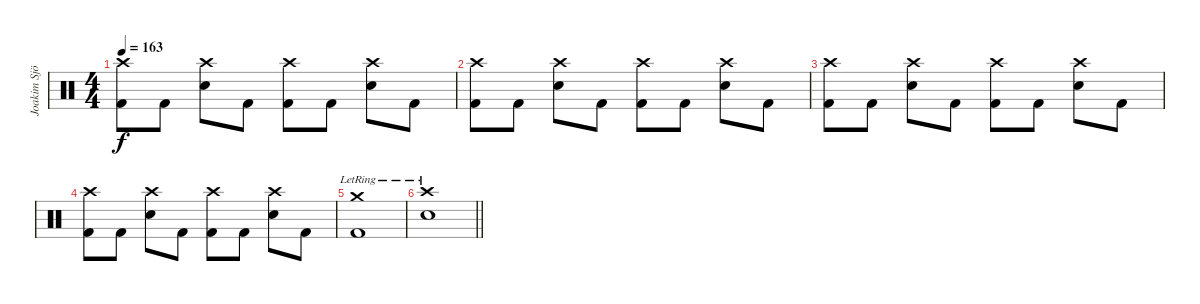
\track ("Joakim Sjöberg" "Joakim Sjö") {instrument percussion}
\staff {score}
\articulation defaults
\ts (4 4)
\tempo 163
\clef neutral
\ks c
("Crash high (hit)" "Kick (hit) 2").8{dy f} "Kick (hit) 2".8 ("Crash high (hit)" "Electric Snare (hit)").8 "Kick (hit) 2".8 ("Crash high (hit)" "Kick (hit) 2").8 "Kick (hit) 2".8 ("Crash high (hit)" "Electric Snare (hit)").8 "Kick (hit) 2".8 |
("Crash high (hit)" "Kick (hit) 2").8 "Kick (hit) 2".8 ("Crash high (hit)" "Electric Snare (hit)").8 "Kick (hit) 2".8 ("Crash high (hit)" "Kick (hit) 2").8 "Kick (hit) 2".8 ("Crash high (hit)" "Electric Snare (hit)").8 "Kick (hit) 2".8 |
("Crash high (hit)" "Kick (hit) 2").8 "Kick (hit) 2".8 ("Crash high (hit)" "Electric Snare (hit)").8 "Kick (hit) 2".8 ("Crash high (hit)" "Kick (hit) 2").8 "Kick (hit) 2".8 ("Crash high (hit)" "Electric Snare (hit)").8 "Kick (hit) 2".8 |
("Crash high (hit)" "Kick (hit) 2").8 "Kick (hit) 2".8 ("Crash high (hit)" "Electric Snare (hit)").8 "Kick (hit) 2".8 ("Crash high (hit)" "Kick (hit) 2").8 "Kick (hit) 2".8 ("Crash high (hit)" "Electric Snare (hit)").8 "Kick (hit) 2".8 |
("Crash medium (hit)"{lr} "Kick (hit) 2").1 |
\barLineRight lightlight
("Crash high (hit)"{lr} "Electric Snare (hit)").1
